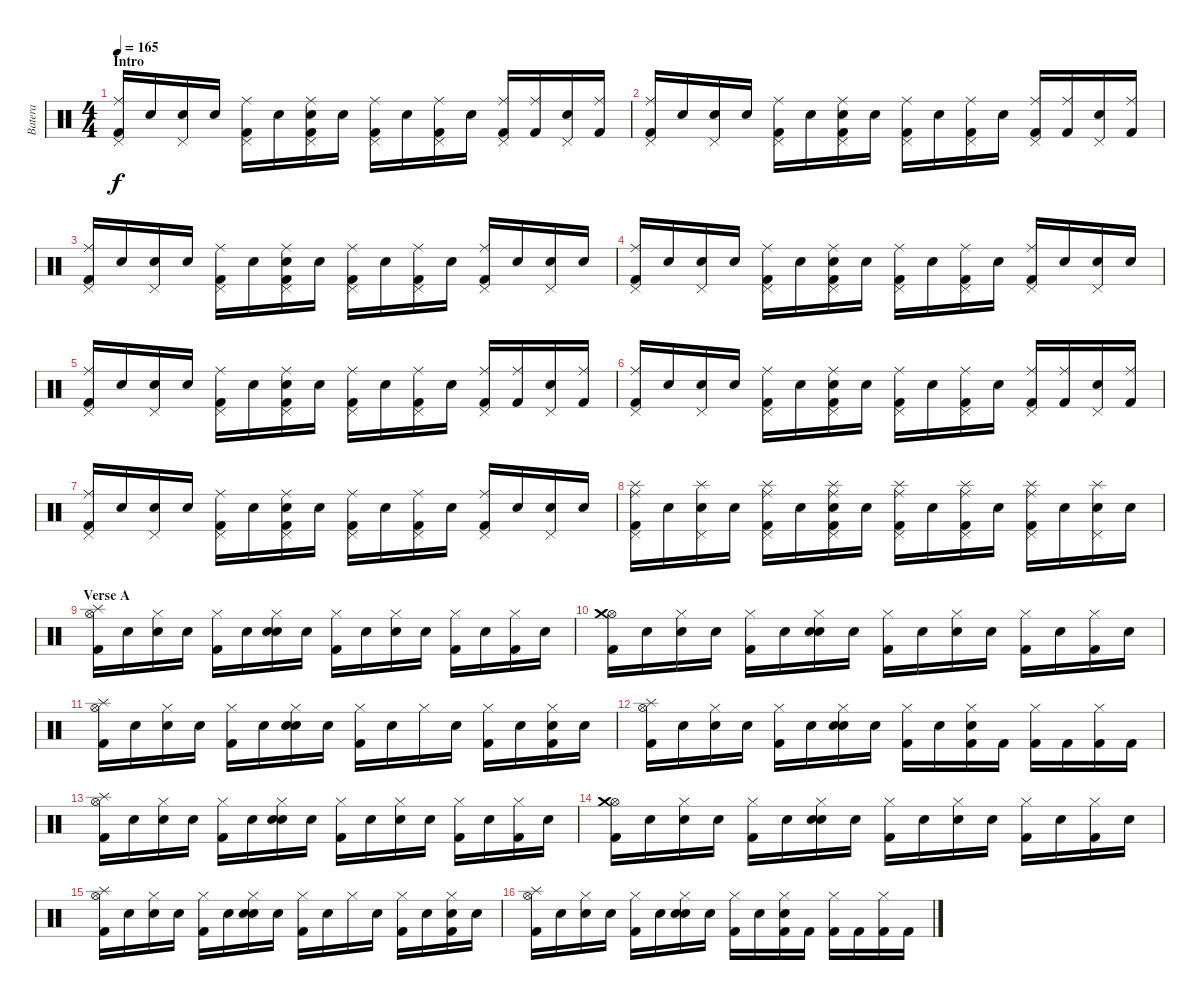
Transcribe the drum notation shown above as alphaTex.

\track ("Batera" "Batera") {instrument percussion}
\staff {score}
\articulation defaults
\ts (4 4)
\section ("" "Intro")
\tempo 165
\clef neutral
\ks c
("Kick (hit) 2" "Pedal Hi-Hat (hit)" "Ride (middle)").16{dy f} "Snare (hit)".16 ("Snare (hit)" "Pedal Hi-Hat (hit)").16 "Snare (hit)".16 ("Kick (hit) 2" "Pedal Hi-Hat (hit)" "Ride (middle)").16 "Snare (hit)".16 ("Kick (hit) 2" "Pedal Hi-Hat (hit)" "Snare (hit) 2" "Ride (middle)").16 "Snare (hit)".16 ("Kick (hit) 2" "Pedal Hi-Hat (hit)" "Ride (middle)").16 "Snare (hit)".16 ("Kick (hit) 2" "Pedal Hi-Hat (hit)" "Ride (middle)").16 "Snare (hit)".16 ("Kick (hit) 2" "Pedal Hi-Hat (hit)" "Ride (middle)").16 ("Kick (hit) 2" "Ride (middle)").16 ("Pedal Hi-Hat (hit)" "Snare (hit) 2").16 ("Kick (hit) 2" "Ride (middle)").16 |
("Kick (hit) 2" "Pedal Hi-Hat (hit)" "Ride (middle)").16 "Snare (hit)".16 ("Snare (hit)" "Pedal Hi-Hat (hit)").16 "Snare (hit)".16 ("Kick (hit) 2" "Pedal Hi-Hat (hit)" "Ride (middle)").16 "Snare (hit)".16 ("Kick (hit) 2" "Pedal Hi-Hat (hit)" "Snare (hit) 2" "Ride (middle)").16 "Snare (hit)".16 ("Kick (hit) 2" "Pedal Hi-Hat (hit)" "Ride (middle)").16 "Snare (hit)".16 ("Kick (hit) 2" "Pedal Hi-Hat (hit)" "Ride (middle)").16 "Snare (hit)".16 ("Kick (hit) 2" "Pedal Hi-Hat (hit)" "Ride (middle)").16 ("Kick (hit) 2" "Ride (middle)").16 ("Pedal Hi-Hat (hit)" "Snare (hit) 2").16 ("Kick (hit) 2" "Ride (middle)").16 |
("Kick (hit) 2" "Pedal Hi-Hat (hit)" "Ride (middle)").16 "Snare (hit)".16 ("Snare (hit)" "Pedal Hi-Hat (hit)").16 "Snare (hit)".16 ("Kick (hit) 2" "Pedal Hi-Hat (hit)" "Ride (middle)").16 "Snare (hit)".16 ("Kick (hit) 2" "Pedal Hi-Hat (hit)" "Snare (hit) 2" "Ride (middle)").16 "Snare (hit)".16 ("Kick (hit) 2" "Pedal Hi-Hat (hit)" "Ride (middle)").16 "Snare (hit)".16 ("Kick (hit) 2" "Pedal Hi-Hat (hit)" "Ride (middle)").16 "Snare (hit)".16 ("Kick (hit) 2" "Pedal Hi-Hat (hit)" "Ride (middle)").16 "Snare (hit)".16 ("Pedal Hi-Hat (hit)" "Snare (hit) 2").16 "Snare (hit)".16 |
("Kick (hit) 2" "Pedal Hi-Hat (hit)" "Ride (middle)").16 "Snare (hit)".16 ("Snare (hit)" "Pedal Hi-Hat (hit)").16 "Snare (hit)".16 ("Kick (hit) 2" "Pedal Hi-Hat (hit)" "Ride (middle)").16 "Snare (hit)".16 ("Kick (hit) 2" "Pedal Hi-Hat (hit)" "Snare (hit) 2" "Ride (middle)").16 "Snare (hit)".16 ("Kick (hit) 2" "Pedal Hi-Hat (hit)" "Ride (middle)").16 "Snare (hit)".16 ("Kick (hit) 2" "Pedal Hi-Hat (hit)" "Ride (middle)").16 "Snare (hit)".16 ("Kick (hit) 2" "Pedal Hi-Hat (hit)" "Ride (middle)").16 "Snare (hit)".16 ("Pedal Hi-Hat (hit)" "Snare (hit) 2").16 "Snare (hit)".16 |
("Kick (hit) 2" "Pedal Hi-Hat (hit)" "Ride (middle)").16 "Snare (hit)".16 ("Snare (hit)" "Pedal Hi-Hat (hit)").16 "Snare (hit)".16 ("Kick (hit) 2" "Pedal Hi-Hat (hit)" "Ride (middle)").16 "Snare (hit)".16 ("Kick (hit) 2" "Pedal Hi-Hat (hit)" "Snare (hit) 2" "Ride (middle)").16 "Snare (hit)".16 ("Kick (hit) 2" "Pedal Hi-Hat (hit)" "Ride (middle)").16 "Snare (hit)".16 ("Kick (hit) 2" "Pedal Hi-Hat (hit)" "Ride (middle)").16 "Snare (hit)".16 ("Kick (hit) 2" "Pedal Hi-Hat (hit)" "Ride (middle)").16 ("Kick (hit) 2" "Ride (middle)").16 ("Pedal Hi-Hat (hit)" "Snare (hit) 2").16 ("Kick (hit) 2" "Ride (middle)").16 |
("Kick (hit) 2" "Pedal Hi-Hat (hit)" "Ride (middle)").16 "Snare (hit)".16 ("Snare (hit)" "Pedal Hi-Hat (hit)").16 "Snare (hit)".16 ("Kick (hit) 2" "Pedal Hi-Hat (hit)" "Ride (middle)").16 "Snare (hit)".16 ("Kick (hit) 2" "Pedal Hi-Hat (hit)" "Snare (hit) 2" "Ride (middle)").16 "Snare (hit)".16 ("Kick (hit) 2" "Pedal Hi-Hat (hit)" "Ride (middle)").16 "Snare (hit)".16 ("Kick (hit) 2" "Pedal Hi-Hat (hit)" "Ride (middle)").16 "Snare (hit)".16 ("Kick (hit) 2" "Pedal Hi-Hat (hit)" "Ride (middle)").16 ("Kick (hit) 2" "Ride (middle)").16 ("Pedal Hi-Hat (hit)" "Snare (hit) 2").16 ("Kick (hit) 2" "Ride (middle)").16 |
("Kick (hit) 2" "Pedal Hi-Hat (hit)" "Ride (middle)").16 "Snare (hit)".16 ("Snare (hit)" "Pedal Hi-Hat (hit)").16 "Snare (hit)".16 ("Kick (hit) 2" "Pedal Hi-Hat (hit)" "Ride (middle)").16 "Snare (hit)".16 ("Kick (hit) 2" "Pedal Hi-Hat (hit)" "Snare (hit) 2" "Ride (middle)").16 "Snare (hit)".16 ("Kick (hit) 2" "Pedal Hi-Hat (hit)" "Ride (middle)").16 "Snare (hit)".16 ("Kick (hit) 2" "Pedal Hi-Hat (hit)" "Ride (middle)").16 "Snare (hit)".16 ("Kick (hit) 2" "Pedal Hi-Hat (hit)" "Ride (middle)").16 "Snare (hit)".16 ("Pedal Hi-Hat (hit)" "Snare (hit) 2").16 "Snare (hit)".16 |
("Kick (hit) 2" "Pedal Hi-Hat (hit)" "Splash (hit)" "Ride (middle)").16 "Snare (hit)".16 ("Snare (hit)" "Pedal Hi-Hat (hit)" "Splash (hit)").16 "Snare (hit)".16 ("Kick (hit) 2" "Pedal Hi-Hat (hit)" "Splash (hit)" "Ride (middle)").16 "Snare (hit)".16 ("Kick (hit) 2" "Pedal Hi-Hat (hit)" "Snare (hit) 2" "Splash (hit)" "Ride (middle)").16 "Snare (hit)".16 ("Kick (hit) 2" "Pedal Hi-Hat (hit)" "Splash (hit)" "Ride (middle)").16 "Snare (hit)".16 ("Kick (hit) 2" "Pedal Hi-Hat (hit)" "Splash (hit)" "Ride (middle)").16 "Snare (hit)".16 ("Kick (hit) 2" "Pedal Hi-Hat (hit)" "Splash (hit)" "Ride (middle)").16 "Snare (hit)".16 ("Pedal Hi-Hat (hit)" "Snare (hit) 2" "Splash (hit)").16 "Snare (hit)".16 |
\section ("" "Verse A")
("Kick (hit) 2" "Hi-Hat (open)" "Splash (hit)").16 "Snare (hit)".16 ("Snare (hit)" "Hi-Hat (closed)").16 "Snare (hit)".16 ("Kick (hit) 2" "Hi-Hat (closed)").16 "Snare (hit)".16 ("Snare (hit)" "Hi-Hat (closed)" "Snare (hit) 2").16 "Snare (hit)".16 ("Kick (hit) 2" "Hi-Hat (closed)").16 "Snare (hit)".16 ("Hi-Hat (closed)" "Snare (hit) 2").16 "Snare (hit)".16 ("Kick (hit) 2" "Hi-Hat (closed)").16 "Snare (hit)".16 ("Kick (hit) 2" "Hi-Hat (closed)").16 "Snare (hit)".16 |
("Kick (hit) 2" "Hi-Hat (open)" "Crash medium (hit)").16 "Snare (hit)".16 ("Snare (hit)" "Hi-Hat (closed)").16 "Snare (hit)".16 ("Kick (hit) 2" "Hi-Hat (closed)").16 "Snare (hit)".16 ("Snare (hit)" "Hi-Hat (closed)" "Snare (hit) 2").16 "Snare (hit)".16 ("Kick (hit) 2" "Hi-Hat (closed)").16 "Snare (hit)".16 ("Hi-Hat (closed)" "Snare (hit) 2").16 "Snare (hit)".16 ("Kick (hit) 2" "Hi-Hat (closed)").16 "Snare (hit)".16 ("Kick (hit) 2" "Hi-Hat (closed)").16 "Snare (hit)".16 |
("Kick (hit) 2" "Hi-Hat (open)" "Splash (hit)").16 "Snare (hit)".16 ("Snare (hit)" "Hi-Hat (closed)").16 "Snare (hit)".16 ("Kick (hit) 2" "Hi-Hat (closed)").16 "Snare (hit)".16 ("Snare (hit)" "Hi-Hat (closed)" "Snare (hit) 2").16 "Snare (hit)".16 ("Kick (hit) 2" "Hi-Hat (closed)").16 "Snare (hit)".16 "Hi-Hat (closed)".16 "Snare (hit)".16 ("Kick (hit) 2" "Hi-Hat (closed)").16 "Snare (hit)".16 ("Kick (hit) 2" "Hi-Hat (closed)" "Snare (hit) 2").16 "Snare (hit)".16 |
("Kick (hit) 2" "Hi-Hat (open)" "Splash (hit)").16 "Snare (hit)".16 ("Snare (hit)" "Hi-Hat (closed)").16 "Snare (hit)".16 ("Kick (hit) 2" "Hi-Hat (closed)").16 "Snare (hit)".16 ("Snare (hit)" "Hi-Hat (closed)" "Snare (hit) 2").16 "Snare (hit)".16 ("Kick (hit) 2" "Hi-Hat (closed)").16 "Snare (hit)".16 ("Kick (hit) 2" "Hi-Hat (closed)" "Snare (hit) 2").16 "Kick (hit) 2".16 ("Kick (hit) 2" "Hi-Hat (closed)").16 "Kick (hit) 2".16 ("Kick (hit) 2" "Hi-Hat (closed)").16 "Kick (hit) 2".16 |
("Kick (hit) 2" "Hi-Hat (open)" "Splash (hit)").16 "Snare (hit)".16 ("Snare (hit)" "Hi-Hat (closed)").16 "Snare (hit)".16 ("Kick (hit) 2" "Hi-Hat (closed)").16 "Snare (hit)".16 ("Snare (hit)" "Hi-Hat (closed)" "Snare (hit) 2").16 "Snare (hit)".16 ("Kick (hit) 2" "Hi-Hat (closed)").16 "Snare (hit)".16 ("Hi-Hat (closed)" "Snare (hit) 2").16 "Snare (hit)".16 ("Kick (hit) 2" "Hi-Hat (closed)").16 "Snare (hit)".16 ("Kick (hit) 2" "Hi-Hat (closed)").16 "Snare (hit)".16 |
("Kick (hit) 2" "Hi-Hat (open)" "Crash medium (hit)").16 "Snare (hit)".16 ("Snare (hit)" "Hi-Hat (closed)").16 "Snare (hit)".16 ("Kick (hit) 2" "Hi-Hat (closed)").16 "Snare (hit)".16 ("Snare (hit)" "Hi-Hat (closed)" "Snare (hit) 2").16 "Snare (hit)".16 ("Kick (hit) 2" "Hi-Hat (closed)").16 "Snare (hit)".16 ("Hi-Hat (closed)" "Snare (hit) 2").16 "Snare (hit)".16 ("Kick (hit) 2" "Hi-Hat (closed)").16 "Snare (hit)".16 ("Kick (hit) 2" "Hi-Hat (closed)").16 "Snare (hit)".16 |
("Kick (hit) 2" "Hi-Hat (open)" "Splash (hit)").16 "Snare (hit)".16 ("Snare (hit)" "Hi-Hat (closed)").16 "Snare (hit)".16 ("Kick (hit) 2" "Hi-Hat (closed)").16 "Snare (hit)".16 ("Snare (hit)" "Hi-Hat (closed)" "Snare (hit) 2").16 "Snare (hit)".16 ("Kick (hit) 2" "Hi-Hat (closed)").16 "Snare (hit)".16 "Hi-Hat (closed)".16 "Snare (hit)".16 ("Kick (hit) 2" "Hi-Hat (closed)").16 "Snare (hit)".16 ("Kick (hit) 2" "Hi-Hat (closed)" "Snare (hit) 2").16 "Snare (hit)".16 |
("Kick (hit) 2" "Hi-Hat (open)" "Splash (hit)").16 "Snare (hit)".16 ("Snare (hit)" "Hi-Hat (closed)").16 "Snare (hit)".16 ("Kick (hit) 2" "Hi-Hat (closed)").16 "Snare (hit)".16 ("Snare (hit)" "Hi-Hat (closed)" "Snare (hit) 2").16 "Snare (hit)".16 ("Kick (hit) 2" "Hi-Hat (closed)").16 "Snare (hit)".16 ("Kick (hit) 2" "Hi-Hat (closed)" "Snare (hit) 2").16 "Kick (hit) 2".16 ("Kick (hit) 2" "Hi-Hat (closed)").16 "Kick (hit) 2".16 ("Kick (hit) 2" "Hi-Hat (closed)").16 "Kick (hit) 2".16
